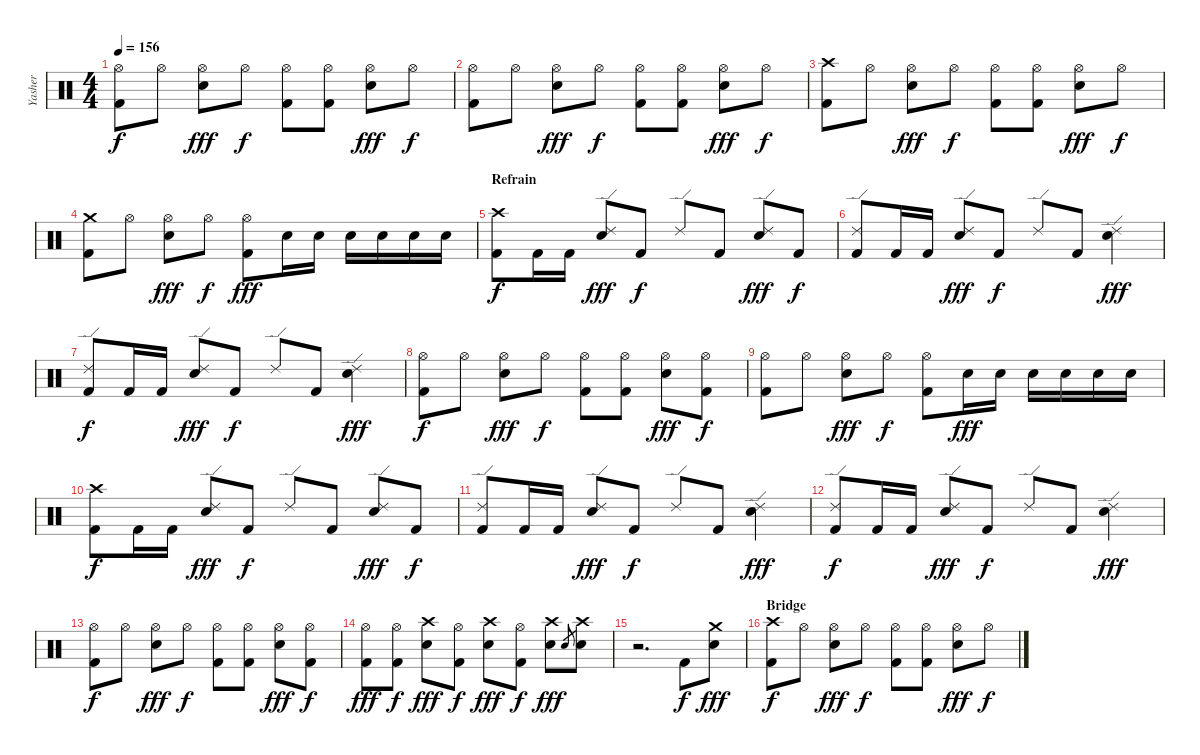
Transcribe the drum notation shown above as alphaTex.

\track ("Yasher" "Yasher") {instrument percussion}
\staff {score}
\articulation defaults
\ts (4 4)
\tempo 156
\clef neutral
\ks c
("Hi-Hat (open)" "Kick (hit) 2").8{dy f} "Hi-Hat (open)".8 ("Hi-Hat (open)" "Electric Snare (hit)").8{dy fff} "Hi-Hat (open)".8{dy f} ("Hi-Hat (open)" "Kick (hit) 2").8 ("Hi-Hat (open)" "Kick (hit) 2").8 ("Hi-Hat (open)" "Electric Snare (hit)").8{dy fff} "Hi-Hat (open)".8{dy f} |
("Hi-Hat (open)" "Kick (hit) 2").8 "Hi-Hat (open)".8 ("Hi-Hat (open)" "Electric Snare (hit)").8{dy fff} "Hi-Hat (open)".8{dy f} ("Hi-Hat (open)" "Kick (hit) 2").8 ("Hi-Hat (open)" "Kick (hit) 2").8 ("Hi-Hat (open)" "Electric Snare (hit)").8{dy fff} "Hi-Hat (open)".8{dy f} |
("Crash high (hit)" "Kick (hit) 2").8 "Hi-Hat (open)".8 ("Hi-Hat (open)" "Electric Snare (hit)").8{dy fff} "Hi-Hat (open)".8{dy f} ("Hi-Hat (open)" "Kick (hit) 2").8 ("Hi-Hat (open)" "Kick (hit) 2").8 ("Hi-Hat (open)" "Electric Snare (hit)").8{dy fff} "Hi-Hat (open)".8{dy f} |
("Crash medium (hit)" "Kick (hit) 2").8 "Hi-Hat (open)".8 ("Hi-Hat (open)" "Electric Snare (hit)").8{dy fff} "Hi-Hat (open)".8{dy f} ("Hi-Hat (open)" "Kick (hit) 2").8{dy fff} "Electric Snare (hit)".16 "Electric Snare (hit)".16 "Electric Snare (hit)".16 "Electric Snare (hit)".16 "Electric Snare (hit)".16 "Electric Snare (hit)".16 |
\section ("" "Refrain")
("Crash high (hit)" "Kick (hit) 2").8{dy f} "Kick (hit) 2".16 "Kick (hit) 2".16 ("Ride (edge) 2" "Electric Snare (hit)").8{dy fff} "Kick (hit) 2".8{dy f} "Ride (edge) 2".8 "Kick (hit) 2".8 ("Ride (edge) 2" "Electric Snare (hit)").8{dy fff} "Kick (hit) 2".8{dy f} |
("Ride (edge) 2" "Kick (hit) 2").8 "Kick (hit) 2".16 "Kick (hit) 2".16 ("Ride (edge) 2" "Electric Snare (hit)").8{dy fff} "Kick (hit) 2".8{dy f} "Ride (edge) 2".8 "Kick (hit) 2".8 ("Ride (edge) 2" "Electric Snare (hit)").4{dy fff} |
("Ride (edge) 2" "Kick (hit) 2").8{dy f} "Kick (hit) 2".16 "Kick (hit) 2".16 ("Ride (edge) 2" "Electric Snare (hit)").8{dy fff} "Kick (hit) 2".8{dy f} "Ride (edge) 2".8 "Kick (hit) 2".8 ("Ride (edge) 2" "Electric Snare (hit)").4{dy fff} |
("Hi-Hat (open)" "Kick (hit) 2").8{dy f} "Hi-Hat (open)".8 ("Hi-Hat (open)" "Electric Snare (hit)").8{dy fff} "Hi-Hat (open)".8{dy f} ("Hi-Hat (open)" "Kick (hit) 2").8 ("Hi-Hat (open)" "Kick (hit) 2").8 ("Hi-Hat (open)" "Electric Snare (hit)").8{dy fff} ("Hi-Hat (open)" "Kick (hit) 2").8{dy f} |
("Hi-Hat (open)" "Kick (hit) 2").8 "Hi-Hat (open)".8 ("Hi-Hat (open)" "Electric Snare (hit)").8{dy fff} "Hi-Hat (open)".8{dy f} ("Hi-Hat (open)" "Kick (hit) 2").8 "Electric Snare (hit)".16{dy fff} "Electric Snare (hit)".16 "Electric Snare (hit)".16 "Electric Snare (hit)".16 "Electric Snare (hit)".16 "Electric Snare (hit)".16 |
("Crash high (hit)" "Kick (hit) 2").8{dy f} "Kick (hit) 2".16 "Kick (hit) 2".16 ("Ride (edge) 2" "Electric Snare (hit)").8{dy fff} "Kick (hit) 2".8{dy f} "Ride (edge) 2".8 "Kick (hit) 2".8 ("Ride (edge) 2" "Electric Snare (hit)").8{dy fff} "Kick (hit) 2".8{dy f} |
("Ride (edge) 2" "Kick (hit) 2").8 "Kick (hit) 2".16 "Kick (hit) 2".16 ("Ride (edge) 2" "Electric Snare (hit)").8{dy fff} "Kick (hit) 2".8{dy f} "Ride (edge) 2".8 "Kick (hit) 2".8 ("Ride (edge) 2" "Electric Snare (hit)").4{dy fff} |
("Ride (edge) 2" "Kick (hit) 2").8{dy f} "Kick (hit) 2".16 "Kick (hit) 2".16 ("Ride (edge) 2" "Electric Snare (hit)").8{dy fff} "Kick (hit) 2".8{dy f} "Ride (edge) 2".8 "Kick (hit) 2".8 ("Ride (edge) 2" "Electric Snare (hit)").4{dy fff} |
("Hi-Hat (open)" "Kick (hit) 2").8{dy f} "Hi-Hat (open)".8 ("Hi-Hat (open)" "Electric Snare (hit)").8{dy fff} "Hi-Hat (open)".8{dy f} ("Hi-Hat (open)" "Kick (hit) 2").8 ("Hi-Hat (open)" "Kick (hit) 2").8 ("Hi-Hat (open)" "Electric Snare (hit)").8{dy fff} ("Hi-Hat (open)" "Kick (hit) 2").8{dy f} |
("Hi-Hat (open)" "Kick (hit) 2").8{dy fff} ("Hi-Hat (open)" "Kick (hit) 2").8{dy f} ("Crash high (hit)" "Electric Snare (hit)").8{dy fff} ("Hi-Hat (open)" "Kick (hit) 2").8{dy f} ("Crash high (hit)" "Electric Snare (hit)").8{dy fff} ("Hi-Hat (open)" "Kick (hit) 2").8{dy f} ("Crash high (hit)" "Electric Snare (hit)").8{dy fff} "Electric Snare (hit)".8{gr} ("Crash high (hit)" "Electric Snare (hit)").8 |
r.2{d} "Kick (hit) 2".8{dy f} ("Crash medium (hit)" "Electric Snare (hit)").8{dy fff} |
\section ("" "Bridge")
("Crash high (hit)" "Kick (hit) 2").8{dy f} "Hi-Hat (open)".8 ("Hi-Hat (open)" "Electric Snare (hit)").8{dy fff} "Hi-Hat (open)".8{dy f} ("Hi-Hat (open)" "Kick (hit) 2").8 ("Hi-Hat (open)" "Kick (hit) 2").8 ("Hi-Hat (open)" "Electric Snare (hit)").8{dy fff} "Hi-Hat (open)".8{dy f}
